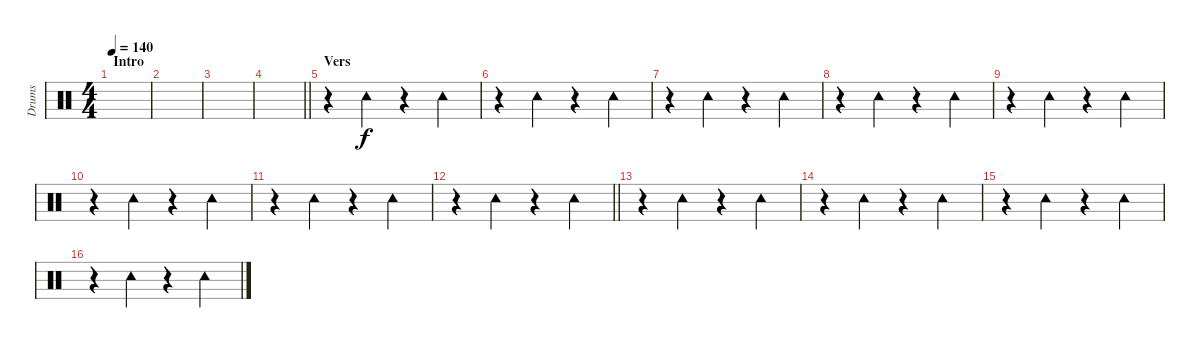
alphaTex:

\track ("Drums" "Drums") {instrument percussion}
\staff {score}
\articulation defaults
\ts (4 4)
\section ("" "Intro")
\tempo 140
\clef neutral
\ks c
|
|
|
\barLineRight lightlight
|
\section ("" "Vers ")
r.4 "Tambourine (hit)".4 r.4 "Tambourine (hit)".4 |
r.4 "Tambourine (hit)".4 r.4 "Tambourine (hit)".4 |
r.4 "Tambourine (hit)".4 r.4 "Tambourine (hit)".4 |
r.4 "Tambourine (hit)".4 r.4 "Tambourine (hit)".4 |
r.4 "Tambourine (hit)".4 r.4 "Tambourine (hit)".4 |
r.4 "Tambourine (hit)".4 r.4 "Tambourine (hit)".4 |
r.4 "Tambourine (hit)".4 r.4 "Tambourine (hit)".4 |
\barLineRight lightlight
r.4 "Tambourine (hit)".4 r.4 "Tambourine (hit)".4 |
r.4 "Tambourine (hit)".4 r.4 "Tambourine (hit)".4 |
r.4 "Tambourine (hit)".4 r.4 "Tambourine (hit)".4 |
r.4 "Tambourine (hit)".4 r.4 "Tambourine (hit)".4 |
r.4 "Tambourine (hit)".4 r.4 "Tambourine (hit)".4
